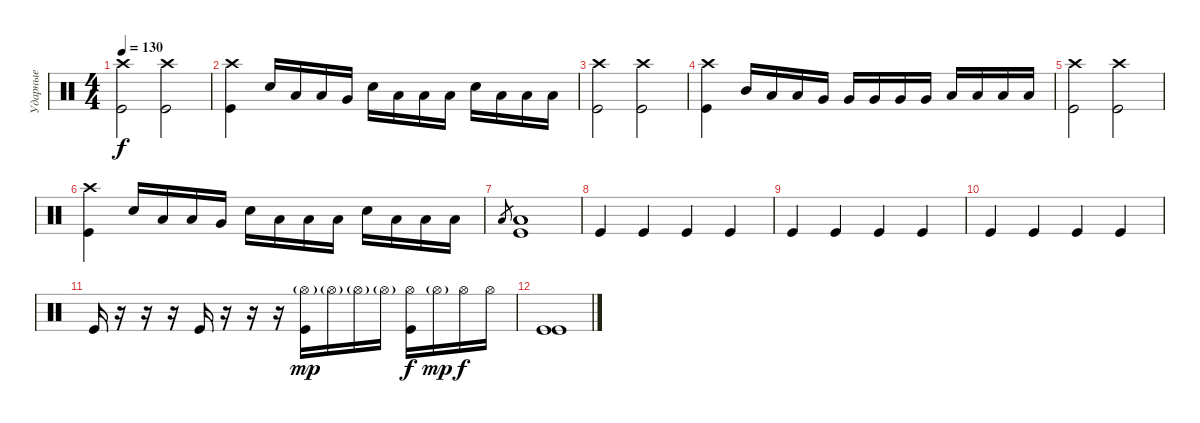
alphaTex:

\track ("Ударные" "Ударные") {instrument percussion}
\staff {score}
\articulation defaults
\ts (4 4)
\tempo 130
\clef neutral
\ks c
("Crash high (hit)" "Kick (hit)").2{dy f} ("Crash high (hit)" "Kick (hit)").2 |
("Crash high (hit)" "Kick (hit)").4 "Electric Snare (hit)".16 "Low Tom (hit)".16 "Low Tom (hit)".16 "Very Low Tom (hit)".16 "Electric Snare (hit)".16 "Low Tom (hit)".16 "Low Tom (hit)".16 "Low Tom (hit)".16 "Electric Snare (hit)".16 "Low Tom (hit)".16 "Low Tom (hit)".16 "Low Floor Tom (hit)".16 |
("Crash high (hit)" "Kick (hit)").2 ("Crash high (hit)" "Kick (hit)").2 |
("Crash high (hit)" "Kick (hit)").4 "Mid Tom (hit)".16 "Low Tom (hit)".16 "Low Tom (hit)".16 "Very Low Tom (hit)".16 "Very Low Tom (hit)".16 "Very Low Tom (hit)".16 "Very Low Tom (hit)".16 "Very Low Tom (hit)".16 "Low Floor Tom (hit)".16 "Low Floor Tom (hit)".16 "Low Floor Tom (hit)".16 "Low Floor Tom (hit)".16 |
("Crash high (hit)" "Kick (hit)").2 ("Crash high (hit)" "Kick (hit)").2 |
("Crash high (hit)" "Kick (hit)").4 "Electric Snare (hit)".16 "Low Tom (hit)".16 "Low Tom (hit)".16 "Very Low Tom (hit)".16 "Electric Snare (hit)".16 "Low Tom (hit)".16 "Low Tom (hit)".16 "Low Tom (hit)".16 "Electric Snare (hit)".16 "Low Tom (hit)".16 "Low Tom (hit)".16 "Low Floor Tom (hit)".16 |
"Low Floor Tom (hit)".8{gr} ("Low Floor Tom (hit)" "Kick (hit)").1 |
"Kick (hit)".4 "Kick (hit)".4 "Kick (hit)".4 "Kick (hit)".4 |
"Kick (hit)".4 "Kick (hit)".4 "Kick (hit)".4 "Kick (hit)".4 |
"Kick (hit)".4 "Kick (hit)".4 "Kick (hit)".4 "Kick (hit)".4 |
"Kick (hit)".16 r.16 r.16 r.16 "Kick (hit)".16 r.16 r.16 r.16 ("Hi-Hat (open)"{g} "Kick (hit)").16{dy mp} "Hi-Hat (open)"{g}.16 "Hi-Hat (open)"{g}.16 "Hi-Hat (open)"{g}.16 ("Hi-Hat (open)" "Kick (hit)").16{dy f} "Hi-Hat (open)"{g}.16{dy mp} "Hi-Hat (open)".16{dy f} "Hi-Hat (open)".16 |
("Kick (hit)" "Kick (hit)").1
